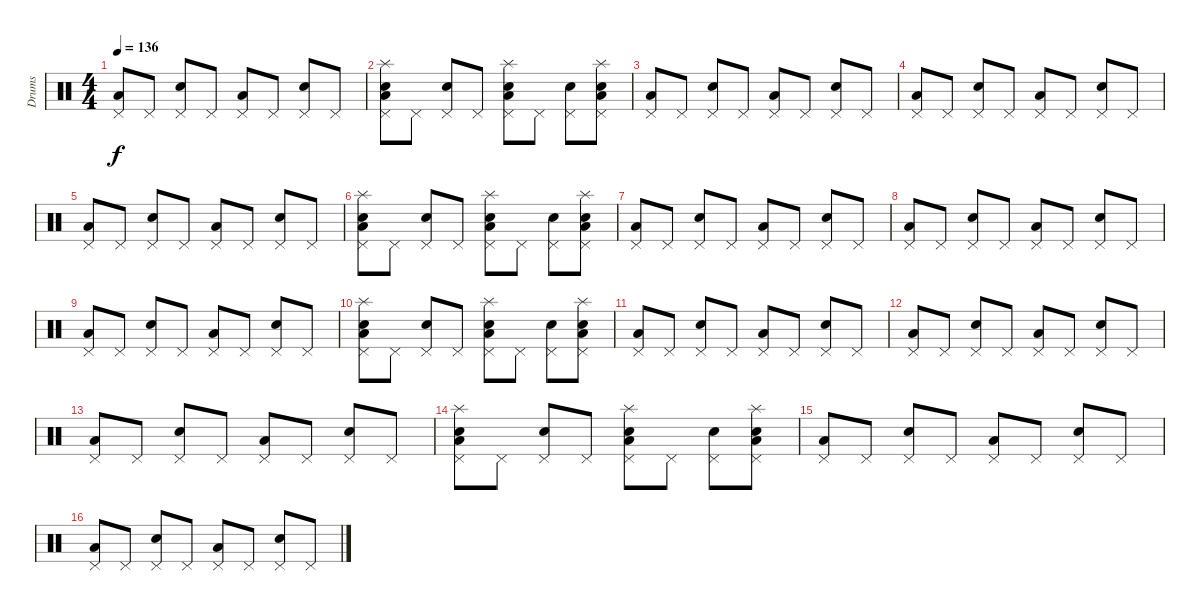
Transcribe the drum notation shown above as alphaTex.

\track ("Drums" "Drums") {instrument percussion}
\staff {score}
\articulation defaults
\ts (4 4)
\tempo 136
\clef neutral
\ks c
("Low Floor Tom (hit)" "Pedal Hi-Hat (hit)").8{dy f} "Pedal Hi-Hat (hit)".8 ("Electric Snare (hit)" "Pedal Hi-Hat (hit)").8 "Pedal Hi-Hat (hit)".8 ("Low Floor Tom (hit)" "Pedal Hi-Hat (hit)").8 "Pedal Hi-Hat (hit)".8 ("Electric Snare (hit)" "Pedal Hi-Hat (hit)").8 "Pedal Hi-Hat (hit)".8 |
("Electric Snare (hit)" "Low Floor Tom (hit)" "Pedal Hi-Hat (hit)" "Splash (hit)").8 "Pedal Hi-Hat (hit)".8 ("Electric Snare (hit)" "Pedal Hi-Hat (hit)").8 "Pedal Hi-Hat (hit)".8 ("Electric Snare (hit)" "Low Floor Tom (hit)" "Pedal Hi-Hat (hit)" "Splash (hit)").8 "Pedal Hi-Hat (hit)".8 ("Electric Snare (hit)" "Pedal Hi-Hat (hit)").8 ("Electric Snare (hit)" "Low Floor Tom (hit)" "Pedal Hi-Hat (hit)" "Splash (hit)").8 |
("Low Floor Tom (hit)" "Pedal Hi-Hat (hit)").8 "Pedal Hi-Hat (hit)".8 ("Electric Snare (hit)" "Pedal Hi-Hat (hit)").8 "Pedal Hi-Hat (hit)".8 ("Low Floor Tom (hit)" "Pedal Hi-Hat (hit)").8 "Pedal Hi-Hat (hit)".8 ("Electric Snare (hit)" "Pedal Hi-Hat (hit)").8 "Pedal Hi-Hat (hit)".8 |
("Low Floor Tom (hit)" "Pedal Hi-Hat (hit)").8 "Pedal Hi-Hat (hit)".8 ("Electric Snare (hit)" "Pedal Hi-Hat (hit)").8 "Pedal Hi-Hat (hit)".8 ("Low Floor Tom (hit)" "Pedal Hi-Hat (hit)").8 "Pedal Hi-Hat (hit)".8 ("Electric Snare (hit)" "Pedal Hi-Hat (hit)").8 "Pedal Hi-Hat (hit)".8 |
("Low Floor Tom (hit)" "Pedal Hi-Hat (hit)").8 "Pedal Hi-Hat (hit)".8 ("Electric Snare (hit)" "Pedal Hi-Hat (hit)").8 "Pedal Hi-Hat (hit)".8 ("Low Floor Tom (hit)" "Pedal Hi-Hat (hit)").8 "Pedal Hi-Hat (hit)".8 ("Electric Snare (hit)" "Pedal Hi-Hat (hit)").8 "Pedal Hi-Hat (hit)".8 |
("Electric Snare (hit)" "Low Floor Tom (hit)" "Pedal Hi-Hat (hit)" "Splash (hit)").8 "Pedal Hi-Hat (hit)".8 ("Electric Snare (hit)" "Pedal Hi-Hat (hit)").8 "Pedal Hi-Hat (hit)".8 ("Electric Snare (hit)" "Low Floor Tom (hit)" "Pedal Hi-Hat (hit)" "Splash (hit)").8 "Pedal Hi-Hat (hit)".8 ("Electric Snare (hit)" "Pedal Hi-Hat (hit)").8 ("Electric Snare (hit)" "Low Floor Tom (hit)" "Pedal Hi-Hat (hit)" "Splash (hit)").8 |
("Low Floor Tom (hit)" "Pedal Hi-Hat (hit)").8 "Pedal Hi-Hat (hit)".8 ("Electric Snare (hit)" "Pedal Hi-Hat (hit)").8 "Pedal Hi-Hat (hit)".8 ("Low Floor Tom (hit)" "Pedal Hi-Hat (hit)").8 "Pedal Hi-Hat (hit)".8 ("Electric Snare (hit)" "Pedal Hi-Hat (hit)").8 "Pedal Hi-Hat (hit)".8 |
("Low Floor Tom (hit)" "Pedal Hi-Hat (hit)").8 "Pedal Hi-Hat (hit)".8 ("Electric Snare (hit)" "Pedal Hi-Hat (hit)").8 "Pedal Hi-Hat (hit)".8 ("Low Floor Tom (hit)" "Pedal Hi-Hat (hit)").8 "Pedal Hi-Hat (hit)".8 ("Electric Snare (hit)" "Pedal Hi-Hat (hit)").8 "Pedal Hi-Hat (hit)".8 |
("Low Floor Tom (hit)" "Pedal Hi-Hat (hit)").8 "Pedal Hi-Hat (hit)".8 ("Electric Snare (hit)" "Pedal Hi-Hat (hit)").8 "Pedal Hi-Hat (hit)".8 ("Low Floor Tom (hit)" "Pedal Hi-Hat (hit)").8 "Pedal Hi-Hat (hit)".8 ("Electric Snare (hit)" "Pedal Hi-Hat (hit)").8 "Pedal Hi-Hat (hit)".8 |
("Electric Snare (hit)" "Low Floor Tom (hit)" "Pedal Hi-Hat (hit)" "Splash (hit)").8 "Pedal Hi-Hat (hit)".8 ("Electric Snare (hit)" "Pedal Hi-Hat (hit)").8 "Pedal Hi-Hat (hit)".8 ("Electric Snare (hit)" "Low Floor Tom (hit)" "Pedal Hi-Hat (hit)" "Splash (hit)").8 "Pedal Hi-Hat (hit)".8 ("Electric Snare (hit)" "Pedal Hi-Hat (hit)").8 ("Electric Snare (hit)" "Low Floor Tom (hit)" "Pedal Hi-Hat (hit)" "Splash (hit)").8 |
("Low Floor Tom (hit)" "Pedal Hi-Hat (hit)").8 "Pedal Hi-Hat (hit)".8 ("Electric Snare (hit)" "Pedal Hi-Hat (hit)").8 "Pedal Hi-Hat (hit)".8 ("Low Floor Tom (hit)" "Pedal Hi-Hat (hit)").8 "Pedal Hi-Hat (hit)".8 ("Electric Snare (hit)" "Pedal Hi-Hat (hit)").8 "Pedal Hi-Hat (hit)".8 |
("Low Floor Tom (hit)" "Pedal Hi-Hat (hit)").8 "Pedal Hi-Hat (hit)".8 ("Electric Snare (hit)" "Pedal Hi-Hat (hit)").8 "Pedal Hi-Hat (hit)".8 ("Low Floor Tom (hit)" "Pedal Hi-Hat (hit)").8 "Pedal Hi-Hat (hit)".8 ("Electric Snare (hit)" "Pedal Hi-Hat (hit)").8 "Pedal Hi-Hat (hit)".8 |
("Low Floor Tom (hit)" "Pedal Hi-Hat (hit)").8 "Pedal Hi-Hat (hit)".8 ("Electric Snare (hit)" "Pedal Hi-Hat (hit)").8 "Pedal Hi-Hat (hit)".8 ("Low Floor Tom (hit)" "Pedal Hi-Hat (hit)").8 "Pedal Hi-Hat (hit)".8 ("Electric Snare (hit)" "Pedal Hi-Hat (hit)").8 "Pedal Hi-Hat (hit)".8 |
("Electric Snare (hit)" "Low Floor Tom (hit)" "Pedal Hi-Hat (hit)" "Splash (hit)").8 "Pedal Hi-Hat (hit)".8 ("Electric Snare (hit)" "Pedal Hi-Hat (hit)").8 "Pedal Hi-Hat (hit)".8 ("Electric Snare (hit)" "Low Floor Tom (hit)" "Pedal Hi-Hat (hit)" "Splash (hit)").8 "Pedal Hi-Hat (hit)".8 ("Electric Snare (hit)" "Pedal Hi-Hat (hit)").8 ("Electric Snare (hit)" "Low Floor Tom (hit)" "Pedal Hi-Hat (hit)" "Splash (hit)").8 |
("Low Floor Tom (hit)" "Pedal Hi-Hat (hit)").8 "Pedal Hi-Hat (hit)".8 ("Electric Snare (hit)" "Pedal Hi-Hat (hit)").8 "Pedal Hi-Hat (hit)".8 ("Low Floor Tom (hit)" "Pedal Hi-Hat (hit)").8 "Pedal Hi-Hat (hit)".8 ("Electric Snare (hit)" "Pedal Hi-Hat (hit)").8 "Pedal Hi-Hat (hit)".8 |
("Low Floor Tom (hit)" "Pedal Hi-Hat (hit)").8 "Pedal Hi-Hat (hit)".8 ("Electric Snare (hit)" "Pedal Hi-Hat (hit)").8 "Pedal Hi-Hat (hit)".8 ("Low Floor Tom (hit)" "Pedal Hi-Hat (hit)").8 "Pedal Hi-Hat (hit)".8 ("Electric Snare (hit)" "Pedal Hi-Hat (hit)").8 "Pedal Hi-Hat (hit)".8
